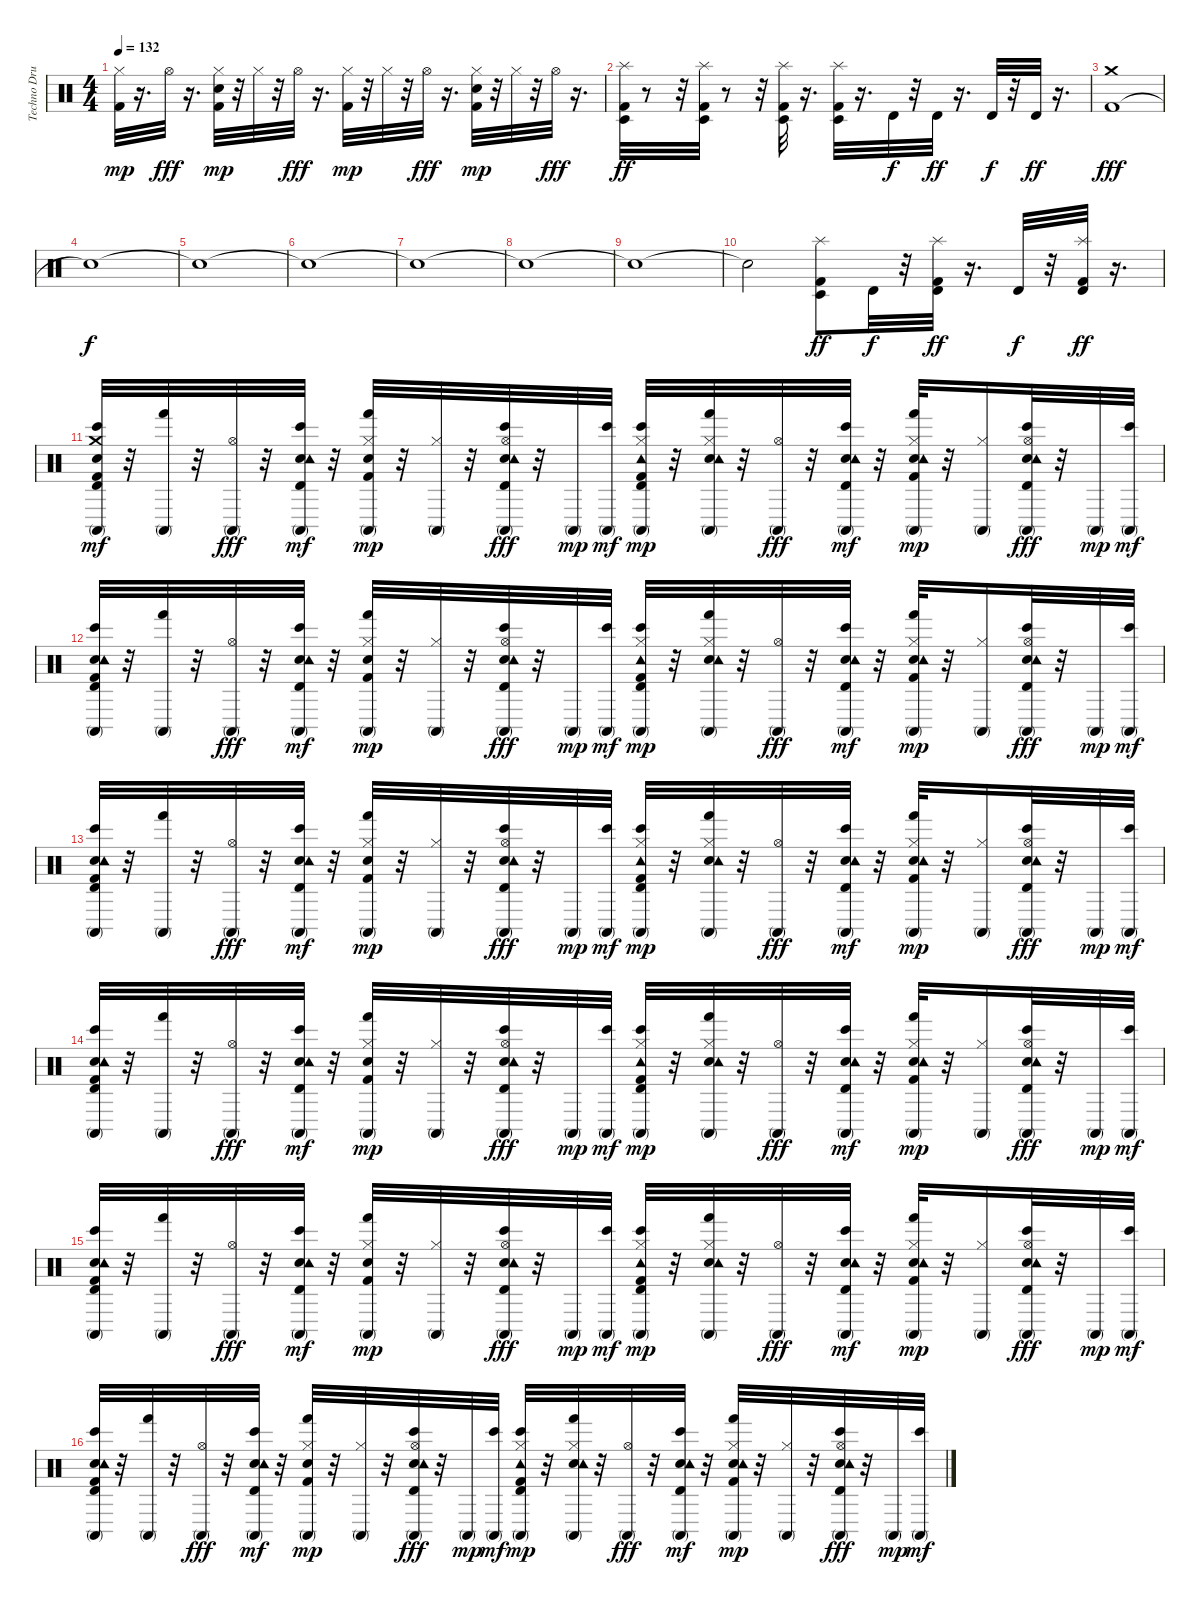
\track ("Techno Drums" "Techno Dru") {instrument percussion}
\staff {score}
\articulation defaults
\ts (4 4)
\tempo 132
\clef neutral
\ks c
("Kick (hit) 2" "Hi-Hat (closed)").32{dy mp} r.16{d} "Hi-Hat (open)".32{dy fff} r.16{d} ("Kick (hit) 2" "Hand Clap (hit)" "Hi-Hat (closed)").32{dy mp} r.32 "Hi-Hat (closed)".32 r.32 "Hi-Hat (open)".32{dy fff} r.16{d} ("Kick (hit) 2" "Hi-Hat (closed)").32{dy mp} r.32 "Hi-Hat (closed)".32 r.32 "Hi-Hat (open)".32{dy fff} r.16{d} ("Kick (hit) 2" "Hand Clap (hit)" "Hi-Hat (closed)").32{dy mp} r.32 "Hi-Hat (closed)".32 r.32 "Hi-Hat (open)".32{dy fff} r.16{d} |
("Kick (hit) 2" "Timbale low (hit)" "Splash (hit)").32{dy ff} r.8 r.32 ("Kick (hit) 2" "Timbale low (hit)" "Splash (hit)").32 r.8 r.32 ("Kick (hit) 2" "Timbale low (hit)" "Splash (hit)").32 r.16{d} ("Timbale low (hit)" "Splash (hit)" "Kick (hit) 2").32 r.16{d} "Timbale high (hit)".32{dy f} r.32 "Timbale high (hit)".32{dy ff} r.16{d} "Timbale high (hit)".32{dy f} r.32 "Timbale high (hit)".32{dy ff} r.16{d} |
("Kick (hit) 2" "Crash medium (hit)").1{dy fff} |
"Snare (hit)"{t}.1{dy f} |
"Snare (hit)"{t}.1 |
"Snare (hit)"{t}.1 |
"Snare (hit)"{t}.1 |
"Snare (hit)"{t}.1 |
"Snare (hit)"{t}.1 |
"Snare (hit)"{t}.2 ("Timbale low (hit)" "Splash (hit)" "Kick (hit) 2").8{dy ff} "Timbale high (hit)".32{dy f} r.32 ("Timbale high (hit)" "Splash (hit)" "Kick (hit) 2").32{dy ff} r.16{d} "Timbale high (hit)".32{dy f} r.32 ("Timbale high (hit)" "Splash (hit)" "Kick (hit) 2").32{dy ff} r.16{d} |
("Kick (hit) 2" "Hand Clap (hit)" "Crash medium (hit)" "Conga high (mute)" "Bongo High (hit)" "Timbale high (hit)").32{dy mf} r.32 ("Conga high (mute)" "Hand (hit)").32 r.32 ("Conga high (mute)" "Hi-Hat (open)").32{dy fff} r.32 ("Hand Clap (hit)" "Tambourine (hit)" "Conga high (mute)" "Bongo High (hit)" "Timbale high (hit)").32{dy mf} r.32 ("Kick (hit) 2" "Hand Clap (hit)" "Conga high (mute)" "Hand (hit)" "Hi-Hat (closed)").32{dy mp} r.32 ("Conga high (mute)" "Hi-Hat (closed)").32 r.32 ("Hand Clap (hit)" "Tambourine (hit)" "Conga high (mute)" "Bongo High (hit)" "Timbale high (hit)" "Hi-Hat (open)").32{dy fff} r.32 "Conga high (mute)".32{dy mp} ("Conga high (mute)" "Bongo High (hit)").32{dy mf} ("Kick (hit) 2" "Tambourine (hit)" "Conga high (mute)" "Bongo High (hit)" "Timbale high (hit)" "Hi-Hat (closed)").32{dy mp} r.32 ("Hand Clap (hit)" "Tambourine (hit)" "Conga high (mute)" "Hand (hit)" "Hi-Hat (closed)").32 r.32 ("Conga high (mute)" "Hi-Hat (open)").32{dy fff} r.32 ("Hand Clap (hit)" "Tambourine (hit)" "Conga high (mute)" "Bongo High (hit)" "Timbale high (hit)").32{dy mf} r.32 ("Kick (hit) 2" "Hand Clap (hit)" "Tambourine (hit)" "Conga high (mute)" "Hand (hit)" "Hi-Hat (closed)").32{dy mp} r.32 ("Conga high (mute)" "Hi-Hat (closed)").16 ("Hand Clap (hit)" "Tambourine (hit)" "Conga high (mute)" "Bongo High (hit)" "Timbale high (hit)" "Hi-Hat (open)").32{dy fff} r.32 "Conga high (mute)".32{dy mp} ("Conga high (mute)" "Bongo High (hit)").32{dy mf} |
("Kick (hit) 2" "Hand Clap (hit)" "Tambourine (hit)" "Conga high (mute)" "Bongo High (hit)" "Timbale high (hit)").32 r.32 ("Conga high (mute)" "Hand (hit)").32 r.32 ("Conga high (mute)" "Hi-Hat (open)").32{dy fff} r.32 ("Hand Clap (hit)" "Tambourine (hit)" "Conga high (mute)" "Bongo High (hit)" "Timbale high (hit)").32{dy mf} r.32 ("Kick (hit) 2" "Hand Clap (hit)" "Conga high (mute)" "Hand (hit)" "Hi-Hat (closed)").32{dy mp} r.32 ("Conga high (mute)" "Hi-Hat (closed)").32 r.32 ("Hand Clap (hit)" "Tambourine (hit)" "Conga high (mute)" "Bongo High (hit)" "Timbale high (hit)" "Hi-Hat (open)").32{dy fff} r.32 "Conga high (mute)".32{dy mp} ("Conga high (mute)" "Bongo High (hit)").32{dy mf} ("Kick (hit) 2" "Tambourine (hit)" "Conga high (mute)" "Bongo High (hit)" "Timbale high (hit)" "Hi-Hat (closed)").32{dy mp} r.32 ("Hand Clap (hit)" "Tambourine (hit)" "Conga high (mute)" "Hand (hit)" "Hi-Hat (closed)").32 r.32 ("Conga high (mute)" "Hi-Hat (open)").32{dy fff} r.32 ("Hand Clap (hit)" "Tambourine (hit)" "Conga high (mute)" "Bongo High (hit)" "Timbale high (hit)").32{dy mf} r.32 ("Kick (hit) 2" "Hand Clap (hit)" "Tambourine (hit)" "Conga high (mute)" "Hand (hit)" "Hi-Hat (closed)").32{dy mp} r.32 ("Conga high (mute)" "Hi-Hat (closed)").16 ("Hand Clap (hit)" "Tambourine (hit)" "Conga high (mute)" "Bongo High (hit)" "Timbale high (hit)" "Hi-Hat (open)").32{dy fff} r.32 "Conga high (mute)".32{dy mp} ("Conga high (mute)" "Bongo High (hit)").32{dy mf} |
("Kick (hit) 2" "Hand Clap (hit)" "Tambourine (hit)" "Conga high (mute)" "Bongo High (hit)" "Timbale high (hit)").32 r.32 ("Conga high (mute)" "Hand (hit)").32 r.32 ("Conga high (mute)" "Hi-Hat (open)").32{dy fff} r.32 ("Hand Clap (hit)" "Tambourine (hit)" "Conga high (mute)" "Bongo High (hit)" "Timbale high (hit)").32{dy mf} r.32 ("Kick (hit) 2" "Hand Clap (hit)" "Conga high (mute)" "Hand (hit)" "Hi-Hat (closed)").32{dy mp} r.32 ("Conga high (mute)" "Hi-Hat (closed)").32 r.32 ("Hand Clap (hit)" "Tambourine (hit)" "Conga high (mute)" "Bongo High (hit)" "Timbale high (hit)" "Hi-Hat (open)").32{dy fff} r.32 "Conga high (mute)".32{dy mp} ("Conga high (mute)" "Bongo High (hit)").32{dy mf} ("Kick (hit) 2" "Tambourine (hit)" "Conga high (mute)" "Bongo High (hit)" "Timbale high (hit)" "Hi-Hat (closed)").32{dy mp} r.32 ("Hand Clap (hit)" "Tambourine (hit)" "Conga high (mute)" "Hand (hit)" "Hi-Hat (closed)").32 r.32 ("Conga high (mute)" "Hi-Hat (open)").32{dy fff} r.32 ("Hand Clap (hit)" "Tambourine (hit)" "Conga high (mute)" "Bongo High (hit)" "Timbale high (hit)").32{dy mf} r.32 ("Kick (hit) 2" "Hand Clap (hit)" "Tambourine (hit)" "Conga high (mute)" "Hand (hit)" "Hi-Hat (closed)").32{dy mp} r.32 ("Conga high (mute)" "Hi-Hat (closed)").16 ("Hand Clap (hit)" "Tambourine (hit)" "Conga high (mute)" "Bongo High (hit)" "Timbale high (hit)" "Hi-Hat (open)").32{dy fff} r.32 "Conga high (mute)".32{dy mp} ("Conga high (mute)" "Bongo High (hit)").32{dy mf} |
("Kick (hit) 2" "Hand Clap (hit)" "Tambourine (hit)" "Conga high (mute)" "Bongo High (hit)" "Timbale high (hit)").32 r.32 ("Conga high (mute)" "Hand (hit)").32 r.32 ("Conga high (mute)" "Hi-Hat (open)").32{dy fff} r.32 ("Hand Clap (hit)" "Tambourine (hit)" "Conga high (mute)" "Bongo High (hit)" "Timbale high (hit)").32{dy mf} r.32 ("Kick (hit) 2" "Hand Clap (hit)" "Conga high (mute)" "Hand (hit)" "Hi-Hat (closed)").32{dy mp} r.32 ("Conga high (mute)" "Hi-Hat (closed)").32 r.32 ("Hand Clap (hit)" "Tambourine (hit)" "Conga high (mute)" "Bongo High (hit)" "Timbale high (hit)" "Hi-Hat (open)").32{dy fff} r.32 "Conga high (mute)".32{dy mp} ("Conga high (mute)" "Bongo High (hit)").32{dy mf} ("Kick (hit) 2" "Tambourine (hit)" "Conga high (mute)" "Bongo High (hit)" "Timbale high (hit)" "Hi-Hat (closed)").32{dy mp} r.32 ("Hand Clap (hit)" "Tambourine (hit)" "Conga high (mute)" "Hand (hit)" "Hi-Hat (closed)").32 r.32 ("Conga high (mute)" "Hi-Hat (open)").32{dy fff} r.32 ("Hand Clap (hit)" "Tambourine (hit)" "Conga high (mute)" "Bongo High (hit)" "Timbale high (hit)").32{dy mf} r.32 ("Kick (hit) 2" "Hand Clap (hit)" "Tambourine (hit)" "Conga high (mute)" "Hand (hit)" "Hi-Hat (closed)").32{dy mp} r.32 ("Conga high (mute)" "Hi-Hat (closed)").16 ("Hand Clap (hit)" "Tambourine (hit)" "Conga high (mute)" "Bongo High (hit)" "Timbale high (hit)" "Hi-Hat (open)").32{dy fff} r.32 "Conga high (mute)".32{dy mp} ("Conga high (mute)" "Bongo High (hit)").32{dy mf} |
("Kick (hit) 2" "Hand Clap (hit)" "Tambourine (hit)" "Conga high (mute)" "Bongo High (hit)" "Timbale high (hit)").32 r.32 ("Conga high (mute)" "Hand (hit)").32 r.32 ("Conga high (mute)" "Hi-Hat (open)").32{dy fff} r.32 ("Hand Clap (hit)" "Tambourine (hit)" "Conga high (mute)" "Bongo High (hit)" "Timbale high (hit)").32{dy mf} r.32 ("Kick (hit) 2" "Hand Clap (hit)" "Conga high (mute)" "Hand (hit)" "Hi-Hat (closed)").32{dy mp} r.32 ("Conga high (mute)" "Hi-Hat (closed)").32 r.32 ("Hand Clap (hit)" "Tambourine (hit)" "Conga high (mute)" "Bongo High (hit)" "Timbale high (hit)" "Hi-Hat (open)").32{dy fff} r.32 "Conga high (mute)".32{dy mp} ("Conga high (mute)" "Bongo High (hit)").32{dy mf} ("Kick (hit) 2" "Tambourine (hit)" "Conga high (mute)" "Bongo High (hit)" "Timbale high (hit)" "Hi-Hat (closed)").32{dy mp} r.32 ("Hand Clap (hit)" "Tambourine (hit)" "Conga high (mute)" "Hand (hit)" "Hi-Hat (closed)").32 r.32 ("Conga high (mute)" "Hi-Hat (open)").32{dy fff} r.32 ("Hand Clap (hit)" "Tambourine (hit)" "Conga high (mute)" "Bongo High (hit)" "Timbale high (hit)").32{dy mf} r.32 ("Kick (hit) 2" "Hand Clap (hit)" "Tambourine (hit)" "Conga high (mute)" "Hand (hit)" "Hi-Hat (closed)").32{dy mp} r.32 ("Conga high (mute)" "Hi-Hat (closed)").16 ("Hand Clap (hit)" "Tambourine (hit)" "Conga high (mute)" "Bongo High (hit)" "Timbale high (hit)" "Hi-Hat (open)").32{dy fff} r.32 "Conga high (mute)".32{dy mp} ("Conga high (mute)" "Bongo High (hit)").32{dy mf} |
("Kick (hit) 2" "Hand Clap (hit)" "Tambourine (hit)" "Conga high (mute)" "Bongo High (hit)" "Timbale high (hit)").32 r.32 ("Conga high (mute)" "Hand (hit)").32 r.32 ("Conga high (mute)" "Hi-Hat (open)").32{dy fff} r.32 ("Hand Clap (hit)" "Tambourine (hit)" "Conga high (mute)" "Bongo High (hit)" "Timbale high (hit)").32{dy mf} r.32 ("Kick (hit) 2" "Hand Clap (hit)" "Conga high (mute)" "Hand (hit)" "Hi-Hat (closed)").32{dy mp} r.32 ("Conga high (mute)" "Hi-Hat (closed)").32 r.32 ("Hand Clap (hit)" "Tambourine (hit)" "Conga high (mute)" "Bongo High (hit)" "Timbale high (hit)" "Hi-Hat (open)").32{dy fff} r.32 "Conga high (mute)".32{dy mp} ("Conga high (mute)" "Bongo High (hit)").32{dy mf} ("Kick (hit) 2" "Tambourine (hit)" "Conga high (mute)" "Bongo High (hit)" "Timbale high (hit)" "Hi-Hat (closed)").32{dy mp} r.32 ("Hand Clap (hit)" "Tambourine (hit)" "Conga high (mute)" "Hand (hit)" "Hi-Hat (closed)").32 r.32 ("Conga high (mute)" "Hi-Hat (open)").32{dy fff} r.32 ("Hand Clap (hit)" "Tambourine (hit)" "Conga high (mute)" "Bongo High (hit)" "Timbale high (hit)").32{dy mf} r.32 ("Kick (hit) 2" "Hand Clap (hit)" "Tambourine (hit)" "Conga high (mute)" "Hand (hit)" "Hi-Hat (closed)").32{dy mp} r.32 ("Conga high (mute)" "Hi-Hat (closed)").32 r.32 ("Hand Clap (hit)" "Tambourine (hit)" "Conga high (mute)" "Bongo High (hit)" "Timbale high (hit)" "Hi-Hat (open)").32{dy fff} r.32 "Conga high (mute)".32{dy mp} ("Conga high (mute)" "Bongo High (hit)").32{dy mf}
